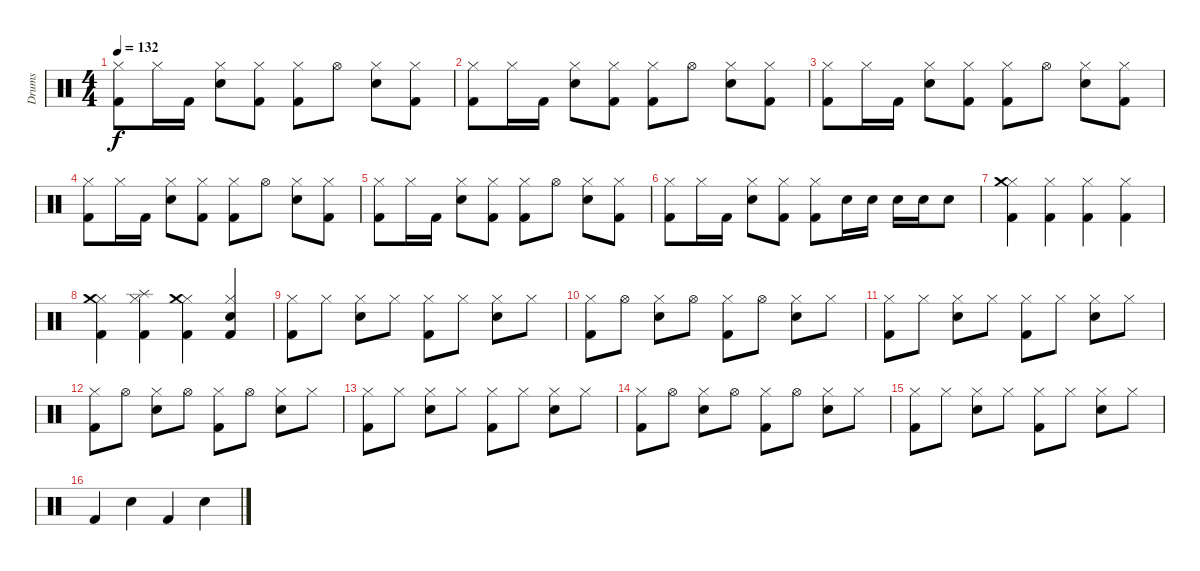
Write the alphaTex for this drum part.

\track ("Drums" "Drums") {instrument percussion}
\staff {score}
\articulation defaults
\ts (4 4)
\tempo 132
\clef neutral
\ks c
("Kick (hit) 2" "Hi-Hat (closed)").8{dy f} "Hi-Hat (closed)".16 "Kick (hit) 2".16 ("Electric Snare (hit)" "Hi-Hat (closed)").8 ("Kick (hit) 2" "Hi-Hat (closed)").8 ("Kick (hit) 2" "Hi-Hat (closed)").8 "Hi-Hat (open)".8 ("Electric Snare (hit)" "Hi-Hat (closed)").8 ("Kick (hit) 2" "Hi-Hat (closed)").8 |
("Kick (hit) 2" "Hi-Hat (closed)").8 "Hi-Hat (closed)".16 "Kick (hit) 2".16 ("Electric Snare (hit)" "Hi-Hat (closed)").8 ("Kick (hit) 2" "Hi-Hat (closed)").8 ("Kick (hit) 2" "Hi-Hat (closed)").8 "Hi-Hat (open)".8 ("Electric Snare (hit)" "Hi-Hat (closed)").8 ("Kick (hit) 2" "Hi-Hat (closed)").8 |
("Kick (hit) 2" "Hi-Hat (closed)").8 "Hi-Hat (closed)".16 "Kick (hit) 2".16 ("Electric Snare (hit)" "Hi-Hat (closed)").8 ("Kick (hit) 2" "Hi-Hat (closed)").8 ("Kick (hit) 2" "Hi-Hat (closed)").8 "Hi-Hat (open)".8 ("Electric Snare (hit)" "Hi-Hat (closed)").8 ("Kick (hit) 2" "Hi-Hat (closed)").8 |
("Kick (hit) 2" "Hi-Hat (closed)").8 "Hi-Hat (closed)".16 "Kick (hit) 2".16 ("Electric Snare (hit)" "Hi-Hat (closed)").8 ("Kick (hit) 2" "Hi-Hat (closed)").8 ("Kick (hit) 2" "Hi-Hat (closed)").8 "Hi-Hat (open)".8 ("Electric Snare (hit)" "Hi-Hat (closed)").8 ("Kick (hit) 2" "Hi-Hat (closed)").8 |
("Kick (hit) 2" "Hi-Hat (closed)").8 "Hi-Hat (closed)".16 "Kick (hit) 2".16 ("Electric Snare (hit)" "Hi-Hat (closed)").8 ("Kick (hit) 2" "Hi-Hat (closed)").8 ("Kick (hit) 2" "Hi-Hat (closed)").8 "Hi-Hat (open)".8 ("Electric Snare (hit)" "Hi-Hat (closed)").8 ("Kick (hit) 2" "Hi-Hat (closed)").8 |
("Kick (hit) 2" "Hi-Hat (closed)").8 "Hi-Hat (closed)".16 "Kick (hit) 2".16 ("Electric Snare (hit)" "Hi-Hat (closed)").8 ("Kick (hit) 2" "Hi-Hat (closed)").8 ("Kick (hit) 2" "Hi-Hat (closed)").8 "Electric Snare (hit)".16 "Electric Snare (hit)".16 "Electric Snare (hit)".16 "Electric Snare (hit)".16 "Electric Snare (hit)".8 |
("Kick (hit) 2" "Hi-Hat (closed)" "Crash medium (hit)").4 ("Kick (hit) 2" "Hi-Hat (closed)").4 ("Kick (hit) 2" "Hi-Hat (closed)").4 ("Kick (hit) 2" "Hi-Hat (closed)").4 |
("Kick (hit) 2" "Hi-Hat (closed)" "Crash medium (hit)").4 ("Kick (hit) 2" "Hi-Hat (closed)" "Splash (hit)").4 ("Kick (hit) 2" "Hi-Hat (closed)" "Crash medium (hit)").4 ("Kick (hit) 2" "Electric Snare (hit)" "Hi-Hat (closed)").4 |
("Kick (hit) 2" "Hi-Hat (closed)").8 "Hi-Hat (closed)".8 ("Electric Snare (hit)" "Hi-Hat (closed)").8 "Hi-Hat (closed)".8 ("Kick (hit) 2" "Hi-Hat (closed)").8 "Hi-Hat (closed)".8 ("Electric Snare (hit)" "Hi-Hat (closed)").8 "Hi-Hat (closed)".8 |
("Kick (hit) 2" "Hi-Hat (closed)").8 "Hi-Hat (open)".8 ("Electric Snare (hit)" "Hi-Hat (closed)").8 "Hi-Hat (open)".8 ("Kick (hit) 2" "Hi-Hat (closed)").8 "Hi-Hat (open)".8 ("Electric Snare (hit)" "Hi-Hat (closed)").8 "Hi-Hat (closed)".8 |
("Kick (hit) 2" "Hi-Hat (closed)").8 "Hi-Hat (closed)".8 ("Electric Snare (hit)" "Hi-Hat (closed)").8 "Hi-Hat (closed)".8 ("Kick (hit) 2" "Hi-Hat (closed)").8 "Hi-Hat (closed)".8 ("Electric Snare (hit)" "Hi-Hat (closed)").8 "Hi-Hat (closed)".8 |
("Kick (hit) 2" "Hi-Hat (closed)").8 "Hi-Hat (open)".8 ("Electric Snare (hit)" "Hi-Hat (closed)").8 "Hi-Hat (open)".8 ("Kick (hit) 2" "Hi-Hat (closed)").8 "Hi-Hat (open)".8 ("Electric Snare (hit)" "Hi-Hat (closed)").8 "Hi-Hat (closed)".8 |
("Kick (hit) 2" "Hi-Hat (closed)").8 "Hi-Hat (closed)".8 ("Electric Snare (hit)" "Hi-Hat (closed)").8 "Hi-Hat (closed)".8 ("Kick (hit) 2" "Hi-Hat (closed)").8 "Hi-Hat (closed)".8 ("Electric Snare (hit)" "Hi-Hat (closed)").8 "Hi-Hat (closed)".8 |
("Kick (hit) 2" "Hi-Hat (closed)").8 "Hi-Hat (open)".8 ("Electric Snare (hit)" "Hi-Hat (closed)").8 "Hi-Hat (open)".8 ("Kick (hit) 2" "Hi-Hat (closed)").8 "Hi-Hat (open)".8 ("Electric Snare (hit)" "Hi-Hat (closed)").8 "Hi-Hat (closed)".8 |
("Kick (hit) 2" "Hi-Hat (closed)").8 "Hi-Hat (closed)".8 ("Electric Snare (hit)" "Hi-Hat (closed)").8 "Hi-Hat (closed)".8 ("Kick (hit) 2" "Hi-Hat (closed)").8 "Hi-Hat (closed)".8 ("Electric Snare (hit)" "Hi-Hat (closed)").8 "Hi-Hat (closed)".8 |
"Kick (hit) 2".4 "Electric Snare (hit)".4 "Kick (hit) 2".4 "Electric Snare (hit)".4
